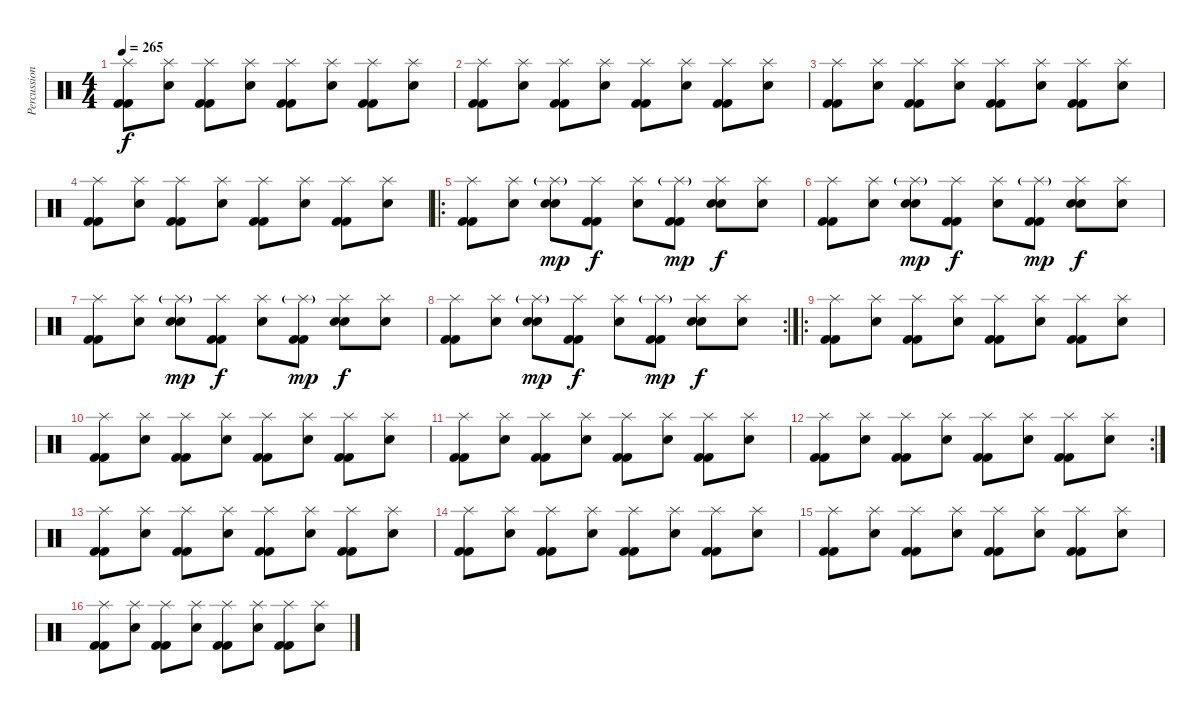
\track ("Percussion" "Percussion") {instrument percussion}
\staff {score}
\articulation defaults
\ts (4 4)
\tempo 265
\clef neutral
\ks c
("Splash (hit)" "Kick (hit) 2" "Kick (hit) 2").8{dy f} ("Splash (hit)" "Snare (hit)").8 ("Splash (hit)" "Kick (hit) 2" "Kick (hit) 2").8 ("Splash (hit)" "Snare (hit)").8 ("Splash (hit)" "Kick (hit) 2" "Kick (hit) 2").8 ("Splash (hit)" "Snare (hit)").8 ("Splash (hit)" "Kick (hit) 2" "Kick (hit) 2").8 ("Splash (hit)" "Snare (hit)").8 |
("Splash (hit)" "Kick (hit) 2" "Kick (hit) 2").8 ("Splash (hit)" "Snare (hit)").8 ("Splash (hit)" "Kick (hit) 2" "Kick (hit) 2").8 ("Splash (hit)" "Snare (hit)").8 ("Splash (hit)" "Kick (hit) 2" "Kick (hit) 2").8 ("Splash (hit)" "Snare (hit)").8 ("Splash (hit)" "Kick (hit) 2" "Kick (hit) 2").8 ("Splash (hit)" "Snare (hit)").8 |
("Splash (hit)" "Kick (hit) 2" "Kick (hit) 2").8 ("Splash (hit)" "Snare (hit)").8 ("Splash (hit)" "Kick (hit) 2" "Kick (hit) 2").8 ("Splash (hit)" "Snare (hit)").8 ("Splash (hit)" "Kick (hit) 2" "Kick (hit) 2").8 ("Splash (hit)" "Snare (hit)").8 ("Splash (hit)" "Kick (hit) 2" "Kick (hit) 2").8 ("Splash (hit)" "Snare (hit)").8 |
("Splash (hit)" "Kick (hit) 2" "Kick (hit) 2").8 ("Splash (hit)" "Snare (hit)").8 ("Splash (hit)" "Kick (hit) 2" "Kick (hit) 2").8 ("Splash (hit)" "Snare (hit)").8 ("Splash (hit)" "Kick (hit) 2" "Kick (hit) 2").8 ("Splash (hit)" "Snare (hit)").8 ("Splash (hit)" "Kick (hit) 2" "Kick (hit) 2").8 ("Splash (hit)" "Snare (hit)").8 |
\ro
("Splash (hit)" "Kick (hit) 2" "Kick (hit) 2").8 ("Splash (hit)" "Snare (hit)").8 ("Splash (hit)"{g} "Electric Snare (hit)" "Electric Snare (hit)").8{dy mp} ("Splash (hit)" "Kick (hit) 2" "Kick (hit) 2").8{dy f} ("Splash (hit)" "Snare (hit)").8 ("Splash (hit)"{g} "Kick (hit) 2" "Kick (hit) 2").8{dy mp} ("Splash (hit)" "Electric Snare (hit)" "Electric Snare (hit)").8{dy f} ("Splash (hit)" "Snare (hit)").8 |
("Splash (hit)" "Kick (hit) 2" "Kick (hit) 2").8 ("Splash (hit)" "Snare (hit)").8 ("Splash (hit)"{g} "Electric Snare (hit)" "Electric Snare (hit)").8{dy mp} ("Splash (hit)" "Kick (hit) 2" "Kick (hit) 2").8{dy f} ("Splash (hit)" "Snare (hit)").8 ("Splash (hit)"{g} "Kick (hit) 2" "Kick (hit) 2").8{dy mp} ("Splash (hit)" "Electric Snare (hit)" "Electric Snare (hit)").8{dy f} ("Splash (hit)" "Snare (hit)").8 |
("Splash (hit)" "Kick (hit) 2" "Kick (hit) 2").8 ("Splash (hit)" "Snare (hit)").8 ("Splash (hit)"{g} "Electric Snare (hit)" "Electric Snare (hit)").8{dy mp} ("Splash (hit)" "Kick (hit) 2" "Kick (hit) 2").8{dy f} ("Splash (hit)" "Snare (hit)").8 ("Splash (hit)"{g} "Kick (hit) 2" "Kick (hit) 2").8{dy mp} ("Splash (hit)" "Electric Snare (hit)" "Electric Snare (hit)").8{dy f} ("Splash (hit)" "Snare (hit)").8 |
\rc 2
("Splash (hit)" "Kick (hit) 2" "Kick (hit) 2").8 ("Splash (hit)" "Snare (hit)").8 ("Splash (hit)"{g} "Electric Snare (hit)" "Electric Snare (hit)").8{dy mp} ("Splash (hit)" "Kick (hit) 2" "Kick (hit) 2").8{dy f} ("Splash (hit)" "Snare (hit)").8 ("Splash (hit)"{g} "Kick (hit) 2" "Kick (hit) 2").8{dy mp} ("Splash (hit)" "Electric Snare (hit)" "Electric Snare (hit)").8{dy f} ("Splash (hit)" "Snare (hit)").8 |
\ro
("Splash (hit)" "Kick (hit) 2" "Kick (hit) 2").8 ("Splash (hit)" "Snare (hit)").8 ("Splash (hit)" "Kick (hit) 2" "Kick (hit) 2").8 ("Splash (hit)" "Snare (hit)").8 ("Splash (hit)" "Kick (hit) 2" "Kick (hit) 2").8 ("Splash (hit)" "Snare (hit)").8 ("Splash (hit)" "Kick (hit) 2" "Kick (hit) 2").8 ("Splash (hit)" "Snare (hit)").8 |
("Splash (hit)" "Kick (hit) 2" "Kick (hit) 2").8 ("Splash (hit)" "Snare (hit)").8 ("Splash (hit)" "Kick (hit) 2" "Kick (hit) 2").8 ("Splash (hit)" "Snare (hit)").8 ("Splash (hit)" "Kick (hit) 2" "Kick (hit) 2").8 ("Splash (hit)" "Snare (hit)").8 ("Splash (hit)" "Kick (hit) 2" "Kick (hit) 2").8 ("Splash (hit)" "Snare (hit)").8 |
("Splash (hit)" "Kick (hit) 2" "Kick (hit) 2").8 ("Splash (hit)" "Snare (hit)").8 ("Splash (hit)" "Kick (hit) 2" "Kick (hit) 2").8 ("Splash (hit)" "Snare (hit)").8 ("Splash (hit)" "Kick (hit) 2" "Kick (hit) 2").8 ("Splash (hit)" "Snare (hit)").8 ("Splash (hit)" "Kick (hit) 2" "Kick (hit) 2").8 ("Splash (hit)" "Snare (hit)").8 |
\rc 2
("Splash (hit)" "Kick (hit) 2" "Kick (hit) 2").8 ("Splash (hit)" "Snare (hit)").8 ("Splash (hit)" "Kick (hit) 2" "Kick (hit) 2").8 ("Splash (hit)" "Snare (hit)").8 ("Splash (hit)" "Kick (hit) 2" "Kick (hit) 2").8 ("Splash (hit)" "Snare (hit)").8 ("Splash (hit)" "Kick (hit) 2" "Kick (hit) 2").8 ("Splash (hit)" "Snare (hit)").8 |
("Splash (hit)" "Kick (hit) 2" "Kick (hit) 2").8 ("Splash (hit)" "Snare (hit)").8 ("Splash (hit)" "Kick (hit) 2" "Kick (hit) 2").8 ("Splash (hit)" "Snare (hit)").8 ("Splash (hit)" "Kick (hit) 2" "Kick (hit) 2").8 ("Splash (hit)" "Snare (hit)").8 ("Splash (hit)" "Kick (hit) 2" "Kick (hit) 2").8 ("Splash (hit)" "Snare (hit)").8 |
("Splash (hit)" "Kick (hit) 2" "Kick (hit) 2").8 ("Splash (hit)" "Snare (hit)").8 ("Splash (hit)" "Kick (hit) 2" "Kick (hit) 2").8 ("Splash (hit)" "Snare (hit)").8 ("Splash (hit)" "Kick (hit) 2" "Kick (hit) 2").8 ("Splash (hit)" "Snare (hit)").8 ("Splash (hit)" "Kick (hit) 2" "Kick (hit) 2").8 ("Splash (hit)" "Snare (hit)").8 |
("Splash (hit)" "Kick (hit) 2" "Kick (hit) 2").8 ("Splash (hit)" "Snare (hit)").8 ("Splash (hit)" "Kick (hit) 2" "Kick (hit) 2").8 ("Splash (hit)" "Snare (hit)").8 ("Splash (hit)" "Kick (hit) 2" "Kick (hit) 2").8 ("Splash (hit)" "Snare (hit)").8 ("Splash (hit)" "Kick (hit) 2" "Kick (hit) 2").8 ("Splash (hit)" "Snare (hit)").8 |
("Splash (hit)" "Kick (hit) 2" "Kick (hit) 2").8 ("Splash (hit)" "Snare (hit)").8 ("Splash (hit)" "Kick (hit) 2" "Kick (hit) 2").8 ("Splash (hit)" "Snare (hit)").8 ("Splash (hit)" "Kick (hit) 2" "Kick (hit) 2").8 ("Splash (hit)" "Snare (hit)").8 ("Splash (hit)" "Kick (hit) 2" "Kick (hit) 2").8 ("Splash (hit)" "Snare (hit)").8
